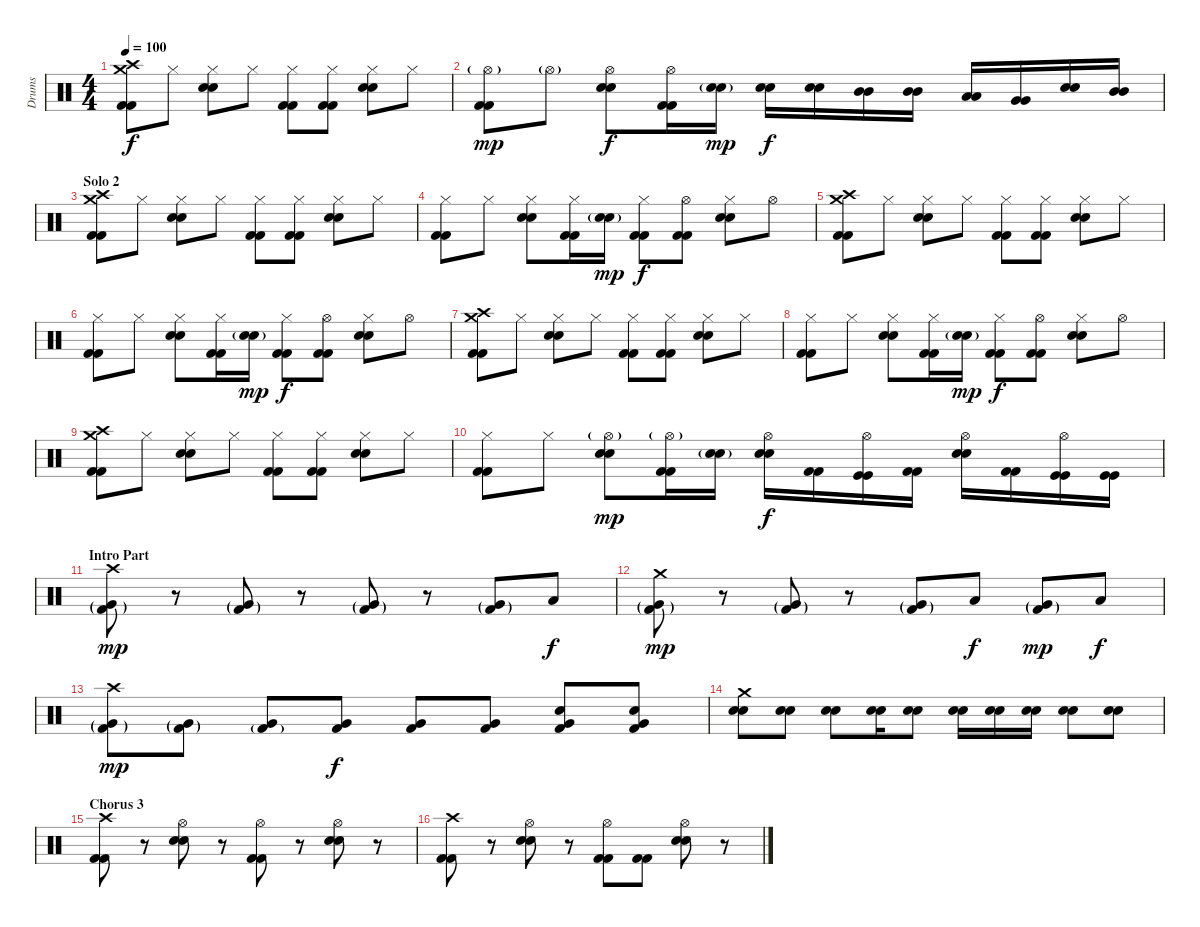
\track ("Drums" "Drums") {instrument percussion}
\staff {score}
\articulation defaults
\ts (4 4)
\tempo 100
\clef neutral
\ks c
("Crash high (hit)" "Crash medium (hit)" "Kick (hit) 2" "Kick (hit) 2").8{dy f} "Hi-Hat (closed)".8 ("Hi-Hat (closed)" "Electric Snare (hit)" "Electric Snare (hit)").8 "Hi-Hat (closed)".8 ("Hi-Hat (closed)" "Kick (hit) 2" "Kick (hit) 2").8 ("Hi-Hat (closed)" "Kick (hit) 2" "Kick (hit) 2").8 ("Hi-Hat (closed)" "Electric Snare (hit)" "Electric Snare (hit)").8 "Hi-Hat (closed)".8 |
("Hi-Hat (open)"{g} "Kick (hit) 2" "Kick (hit) 2").8{dy mp} "Hi-Hat (open)"{g}.8 ("Hi-Hat (open)" "Electric Snare (hit)" "Electric Snare (hit)").8{dy f} ("Hi-Hat (open)" "Kick (hit) 2" "Kick (hit) 2").16 ("Electric Snare (hit)"{g} "Electric Snare (hit)"{g}).16{dy mp} ("Electric Snare (hit)" "Electric Snare (hit)").16{dy f} ("Electric Snare (hit)" "Electric Snare (hit)").16 ("Mid Tom (hit)" "Mid Tom (hit)").16 ("Mid Tom (hit)" "Mid Tom (hit)").16 ("Low Tom (hit)" "Low Tom (hit)").16 ("Very Low Tom (hit)" "Very Low Tom (hit)").16 ("Electric Snare (hit)" "Electric Snare (hit)").16 ("Mid Tom (hit)" "Mid Tom (hit)").16 |
\section ("" "Solo 2")
("Crash high (hit)" "Crash medium (hit)" "Kick (hit) 2" "Kick (hit) 2").8 "Hi-Hat (closed)".8 ("Hi-Hat (closed)" "Electric Snare (hit)" "Electric Snare (hit)").8 "Hi-Hat (closed)".8 ("Hi-Hat (closed)" "Kick (hit) 2" "Kick (hit) 2").8 ("Hi-Hat (closed)" "Kick (hit) 2" "Kick (hit) 2").8 ("Hi-Hat (closed)" "Electric Snare (hit)" "Electric Snare (hit)").8 "Hi-Hat (closed)".8 |
("Hi-Hat (closed)" "Kick (hit) 2" "Kick (hit) 2").8 "Hi-Hat (closed)".8 ("Hi-Hat (closed)" "Electric Snare (hit)" "Electric Snare (hit)").8 ("Hi-Hat (closed)" "Kick (hit) 2" "Kick (hit) 2").16 ("Electric Snare (hit)"{g} "Electric Snare (hit)"{g}).16{dy mp} ("Hi-Hat (closed)" "Kick (hit) 2" "Kick (hit) 2").8{dy f} ("Hi-Hat (open)" "Kick (hit) 2" "Kick (hit) 2").8 ("Hi-Hat (closed)" "Electric Snare (hit)" "Electric Snare (hit)").8 "Hi-Hat (open)".8 |
("Crash high (hit)" "Crash medium (hit)" "Kick (hit) 2" "Kick (hit) 2").8 "Hi-Hat (closed)".8 ("Hi-Hat (closed)" "Electric Snare (hit)" "Electric Snare (hit)").8 "Hi-Hat (closed)".8 ("Hi-Hat (closed)" "Kick (hit) 2" "Kick (hit) 2").8 ("Hi-Hat (closed)" "Kick (hit) 2" "Kick (hit) 2").8 ("Hi-Hat (closed)" "Electric Snare (hit)" "Electric Snare (hit)").8 "Hi-Hat (closed)".8 |
("Hi-Hat (closed)" "Kick (hit) 2" "Kick (hit) 2").8 "Hi-Hat (closed)".8 ("Hi-Hat (closed)" "Electric Snare (hit)" "Electric Snare (hit)").8 ("Hi-Hat (closed)" "Kick (hit) 2" "Kick (hit) 2").16 ("Electric Snare (hit)"{g} "Electric Snare (hit)"{g}).16{dy mp} ("Hi-Hat (closed)" "Kick (hit) 2" "Kick (hit) 2").8{dy f} ("Hi-Hat (open)" "Kick (hit) 2" "Kick (hit) 2").8 ("Hi-Hat (closed)" "Electric Snare (hit)" "Electric Snare (hit)").8 "Hi-Hat (open)".8 |
("Crash high (hit)" "Crash medium (hit)" "Kick (hit) 2" "Kick (hit) 2").8 "Hi-Hat (closed)".8 ("Hi-Hat (closed)" "Electric Snare (hit)" "Electric Snare (hit)").8 "Hi-Hat (closed)".8 ("Hi-Hat (closed)" "Kick (hit) 2" "Kick (hit) 2").8 ("Hi-Hat (closed)" "Kick (hit) 2" "Kick (hit) 2").8 ("Hi-Hat (closed)" "Electric Snare (hit)" "Electric Snare (hit)").8 "Hi-Hat (closed)".8 |
("Hi-Hat (closed)" "Kick (hit) 2" "Kick (hit) 2").8 "Hi-Hat (closed)".8 ("Hi-Hat (closed)" "Electric Snare (hit)" "Electric Snare (hit)").8 ("Hi-Hat (closed)" "Kick (hit) 2" "Kick (hit) 2").16 ("Electric Snare (hit)"{g} "Electric Snare (hit)"{g}).16{dy mp} ("Hi-Hat (closed)" "Kick (hit) 2" "Kick (hit) 2").8{dy f} ("Hi-Hat (open)" "Kick (hit) 2" "Kick (hit) 2").8 ("Hi-Hat (closed)" "Electric Snare (hit)" "Electric Snare (hit)").8 "Hi-Hat (open)".8 |
("Crash high (hit)" "Crash medium (hit)" "Kick (hit) 2" "Kick (hit) 2").8 "Hi-Hat (closed)".8 ("Hi-Hat (closed)" "Electric Snare (hit)" "Electric Snare (hit)").8 "Hi-Hat (closed)".8 ("Hi-Hat (closed)" "Kick (hit) 2" "Kick (hit) 2").8 ("Hi-Hat (closed)" "Kick (hit) 2" "Kick (hit) 2").8 ("Hi-Hat (closed)" "Electric Snare (hit)" "Electric Snare (hit)").8 "Hi-Hat (closed)".8 |
("Hi-Hat (closed)" "Kick (hit) 2" "Kick (hit) 2").8 "Hi-Hat (closed)".8 ("Hi-Hat (open)"{g} "Electric Snare (hit)" "Electric Snare (hit)").8{dy mp} ("Hi-Hat (open)"{g} "Kick (hit) 2" "Kick (hit) 2").16 ("Electric Snare (hit)"{g} "Electric Snare (hit)"{g}).16 ("Hi-Hat (open)" "Electric Snare (hit)" "Electric Snare (hit)").16{dy f} ("Kick (hit) 2" "Kick (hit) 2").16 ("Hi-Hat (open)" "Kick (hit)" "Kick (hit)").16 ("Kick (hit) 2" "Kick (hit) 2").16 ("Hi-Hat (open)" "Electric Snare (hit)" "Electric Snare (hit)").16 ("Kick (hit) 2" "Kick (hit) 2").16 ("Hi-Hat (open)" "Kick (hit)" "Kick (hit)").16 ("Kick (hit)" "Kick (hit)").16 |
\section ("" "Intro Part ")
("Crash high (hit)" "Very Low Tom (hit)"{g} "Kick (hit) 2"{g}).8{dy mp} r.8 ("Very Low Tom (hit)"{g} "Kick (hit) 2"{g}).8 r.8 ("Very Low Tom (hit)"{g} "Kick (hit) 2"{g}).8 r.8 ("Very Low Tom (hit)"{g} "Kick (hit) 2"{g}).8 "Low Tom (hit)".8{dy f} |
("Crash medium (hit)" "Very Low Tom (hit)"{g} "Kick (hit) 2"{g}).8{dy mp} r.8 ("Very Low Tom (hit)"{g} "Kick (hit) 2"{g}).8 r.8 ("Very Low Tom (hit)"{g} "Kick (hit) 2"{g}).8 "Low Tom (hit)".8{dy f} ("Very Low Tom (hit)"{g} "Kick (hit) 2"{g}).8{dy mp} "Low Tom (hit)".8{dy f} |
("Crash high (hit)" "Very Low Tom (hit)"{g} "Kick (hit) 2"{g}).8{dy mp} ("Very Low Tom (hit)"{g} "Kick (hit) 2"{g}).8 ("Very Low Tom (hit)" "Kick (hit) 2"{g}).8 ("Very Low Tom (hit)" "Kick (hit) 2").8{dy f} ("Very Low Tom (hit)" "Kick (hit) 2").8 ("Very Low Tom (hit)" "Kick (hit) 2").8 ("Very Low Tom (hit)" "Electric Snare (hit)" "Kick (hit) 2").8 ("Very Low Tom (hit)" "Electric Snare (hit)" "Kick (hit) 2").8 |
("Crash medium (hit)" "Electric Snare (hit)" "Electric Snare (hit)").8 ("Electric Snare (hit)" "Electric Snare (hit)").8 ("Electric Snare (hit)" "Electric Snare (hit)").8 ("Electric Snare (hit)" "Electric Snare (hit)").16 ("Electric Snare (hit)" "Electric Snare (hit)").8 ("Electric Snare (hit)" "Electric Snare (hit)").16 ("Electric Snare (hit)" "Electric Snare (hit)").16 ("Electric Snare (hit)" "Electric Snare (hit)").16 ("Electric Snare (hit)" "Electric Snare (hit)").8 ("Electric Snare (hit)" "Electric Snare (hit)").8 |
\section ("" "Chorus 3")
("Crash high (hit)" "Kick (hit) 2" "Kick (hit) 2").8 r.8 ("Hi-Hat (open)" "Electric Snare (hit)" "Electric Snare (hit)").8 r.8 ("Hi-Hat (open)" "Kick (hit) 2" "Kick (hit) 2").8 r.8 ("Hi-Hat (open)" "Electric Snare (hit)" "Electric Snare (hit)").8 r.8 |
("Crash high (hit)" "Kick (hit) 2" "Kick (hit) 2").8 r.8 ("Hi-Hat (open)" "Electric Snare (hit)" "Electric Snare (hit)").8 r.8 ("Hi-Hat (open)" "Kick (hit) 2" "Kick (hit) 2").8 ("Kick (hit) 2" "Kick (hit) 2").8 ("Hi-Hat (open)" "Electric Snare (hit)" "Electric Snare (hit)").8 r.8
